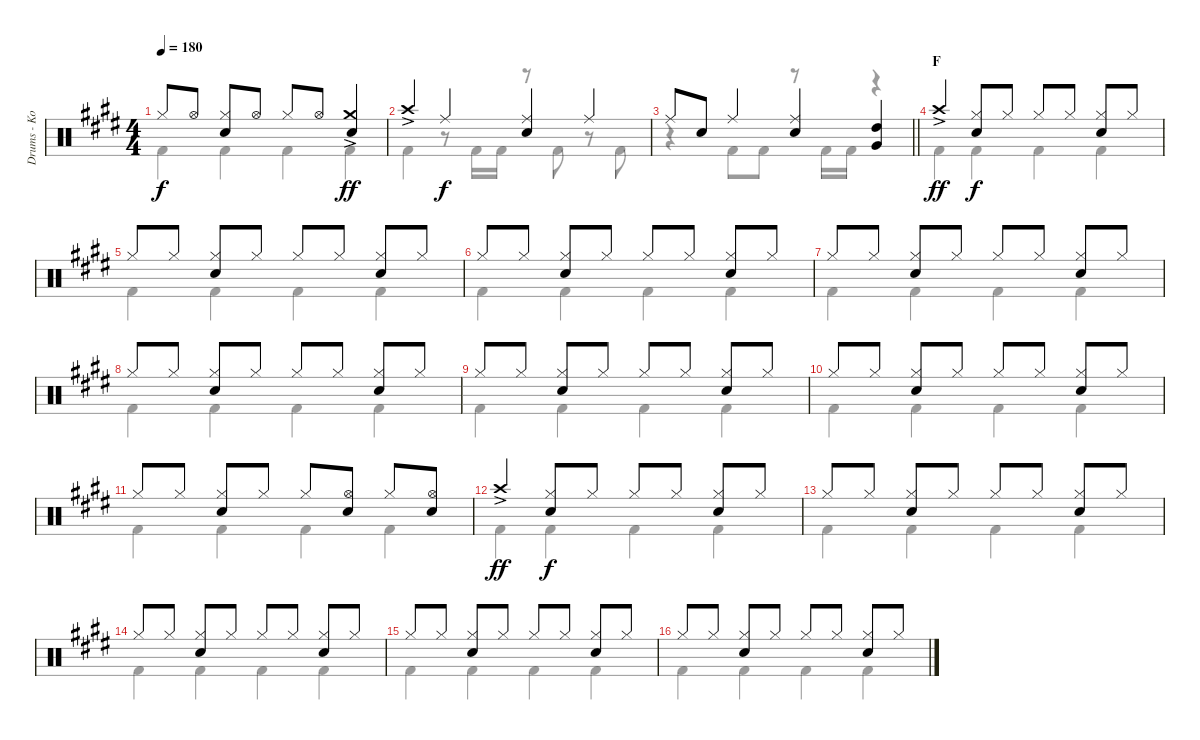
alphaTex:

\track ("Drums - Ko-Ki" "Drums - Ko") {instrument percussion}
\staff {score}
\articulation defaults
\voice
\ts (4 4)
\tempo 180
\clef neutral
\ks e "Hi-Hat (closed)".8{dy f} "Hi-Hat (open)".8
("Hi-Hat (closed)" "Snare (hit) 2").8 "Hi-Hat (open)".8 "Hi-Hat (closed)".8 "Hi-Hat (open)".8 ("Crash medium (hit)"{ac} "Snare (hit) 2").4{dy ff} |
"Crash high (hit)"{ac}.4 "Ride (middle)".4{dy f} ("Ride (middle)" "Snare (hit) 2").4 "Ride (middle)".4 |
\barLineRight lightlight "Ride (middle)".8 "Snare (hit) 2".8 "Ride (middle)".4
("Ride (middle)" "Snare (hit) 2").4 ("High Tom (hit)" "Very Low Tom (hit)").4 |
\section ("" "F")
"Crash high (hit)"{ac}.4{dy ff} ("Hi-Hat (closed)" "Snare (hit) 2").8{dy f} "Hi-Hat (closed)".8 "Hi-Hat (closed)".8 "Hi-Hat (closed)".8 ("Hi-Hat (closed)" "Snare (hit) 2").8 "Hi-Hat (closed)".8 |
"Hi-Hat (closed)".8 "Hi-Hat (closed)".8 ("Hi-Hat (closed)" "Snare (hit) 2").8 "Hi-Hat (closed)".8 "Hi-Hat (closed)".8 "Hi-Hat (closed)".8 ("Hi-Hat (closed)" "Snare (hit) 2").8 "Hi-Hat (closed)".8 |
"Hi-Hat (closed)".8 "Hi-Hat (closed)".8 ("Hi-Hat (closed)" "Snare (hit) 2").8 "Hi-Hat (closed)".8 "Hi-Hat (closed)".8 "Hi-Hat (closed)".8 ("Hi-Hat (closed)" "Snare (hit) 2").8 "Hi-Hat (closed)".8 |
"Hi-Hat (closed)".8 "Hi-Hat (closed)".8 ("Hi-Hat (closed)" "Snare (hit) 2").8 "Hi-Hat (closed)".8 "Hi-Hat (closed)".8 "Hi-Hat (closed)".8 ("Hi-Hat (closed)" "Snare (hit) 2").8 "Hi-Hat (closed)".8 |
"Hi-Hat (closed)".8 "Hi-Hat (closed)".8 ("Hi-Hat (closed)" "Snare (hit) 2").8 "Hi-Hat (closed)".8 "Hi-Hat (closed)".8 "Hi-Hat (closed)".8 ("Hi-Hat (closed)" "Snare (hit) 2").8 "Hi-Hat (closed)".8 |
"Hi-Hat (closed)".8 "Hi-Hat (closed)".8 ("Hi-Hat (closed)" "Snare (hit) 2").8 "Hi-Hat (closed)".8 "Hi-Hat (closed)".8 "Hi-Hat (closed)".8 ("Hi-Hat (closed)" "Snare (hit) 2").8 "Hi-Hat (closed)".8 |
"Hi-Hat (closed)".8 "Hi-Hat (closed)".8 ("Hi-Hat (closed)" "Snare (hit) 2").8 "Hi-Hat (closed)".8 "Hi-Hat (closed)".8 "Hi-Hat (closed)".8 ("Hi-Hat (closed)" "Snare (hit) 2").8 "Hi-Hat (closed)".8 |
"Hi-Hat (closed)".8 "Hi-Hat (closed)".8 ("Hi-Hat (closed)" "Snare (hit) 2").8 "Hi-Hat (closed)".8 "Hi-Hat (closed)".8 ("Hi-Hat (open)" "Snare (hit) 2").8 "Hi-Hat (closed)".8 ("Hi-Hat (open)" "Snare (hit) 2").8 |
"Crash high (hit)"{ac}.4{dy ff} ("Hi-Hat (closed)" "Snare (hit) 2").8{dy f} "Hi-Hat (closed)".8 "Hi-Hat (closed)".8 "Hi-Hat (closed)".8 ("Hi-Hat (closed)" "Snare (hit) 2").8 "Hi-Hat (closed)".8 |
"Hi-Hat (closed)".8 "Hi-Hat (closed)".8 ("Hi-Hat (closed)" "Snare (hit) 2").8 "Hi-Hat (closed)".8 "Hi-Hat (closed)".8 "Hi-Hat (closed)".8 ("Hi-Hat (closed)" "Snare (hit) 2").8 "Hi-Hat (closed)".8 |
"Hi-Hat (closed)".8 "Hi-Hat (closed)".8 ("Hi-Hat (closed)" "Snare (hit) 2").8 "Hi-Hat (closed)".8 "Hi-Hat (closed)".8 "Hi-Hat (closed)".8 ("Hi-Hat (closed)" "Snare (hit) 2").8 "Hi-Hat (closed)".8 |
"Hi-Hat (closed)".8 "Hi-Hat (closed)".8 ("Hi-Hat (closed)" "Snare (hit) 2").8 "Hi-Hat (closed)".8 "Hi-Hat (closed)".8 "Hi-Hat (closed)".8 ("Hi-Hat (closed)" "Snare (hit) 2").8 "Hi-Hat (closed)".8 |
"Hi-Hat (closed)".8 "Hi-Hat (closed)".8 ("Hi-Hat (closed)" "Snare (hit) 2").8 "Hi-Hat (closed)".8 "Hi-Hat (closed)".8 "Hi-Hat (closed)".8 ("Hi-Hat (closed)" "Snare (hit) 2").8 "Hi-Hat (closed)".8
\voice
\clef neutral
\ottava regular
\simile none
\ks e "Kick (hit) 2".4{dy f} "Kick (hit) 2".4 "Kick (hit) 2".4 "Kick (hit) 2".4
|
"Kick (hit) 2".4 r.8 "Kick (hit) 2".16 "Kick (hit) 2".16 r.8 "Kick (hit) 2".8 r.8 "Kick (hit) 2".8 |
\barLineRight lightlight
r.4 "Kick (hit) 2".8 "Kick (hit) 2".8 r.8 "Kick (hit) 2".16 "Kick (hit) 2".16 r.4 |
"Kick (hit) 2".4 "Kick (hit) 2".4 "Kick (hit) 2".4 "Kick (hit) 2".4 |
"Kick (hit) 2".4 "Kick (hit) 2".4 "Kick (hit) 2".4 "Kick (hit) 2".4 |
"Kick (hit) 2".4 "Kick (hit) 2".4 "Kick (hit) 2".4 "Kick (hit) 2".4 |
"Kick (hit) 2".4 "Kick (hit) 2".4 "Kick (hit) 2".4 "Kick (hit) 2".4 |
"Kick (hit) 2".4 "Kick (hit) 2".4 "Kick (hit) 2".4 "Kick (hit) 2".4 |
"Kick (hit) 2".4 "Kick (hit) 2".4 "Kick (hit) 2".4 "Kick (hit) 2".4 |
"Kick (hit) 2".4 "Kick (hit) 2".4 "Kick (hit) 2".4 "Kick (hit) 2".4 |
"Kick (hit) 2".4 "Kick (hit) 2".4 "Kick (hit) 2".4 "Kick (hit) 2".4 |
"Kick (hit) 2".4 "Kick (hit) 2".4 "Kick (hit) 2".4 "Kick (hit) 2".4 |
"Kick (hit) 2".4 "Kick (hit) 2".4 "Kick (hit) 2".4 "Kick (hit) 2".4 |
"Kick (hit) 2".4 "Kick (hit) 2".4 "Kick (hit) 2".4 "Kick (hit) 2".4 |
"Kick (hit) 2".4 "Kick (hit) 2".4 "Kick (hit) 2".4 "Kick (hit) 2".4 |
"Kick (hit) 2".4 "Kick (hit) 2".4 "Kick (hit) 2".4 "Kick (hit) 2".4
